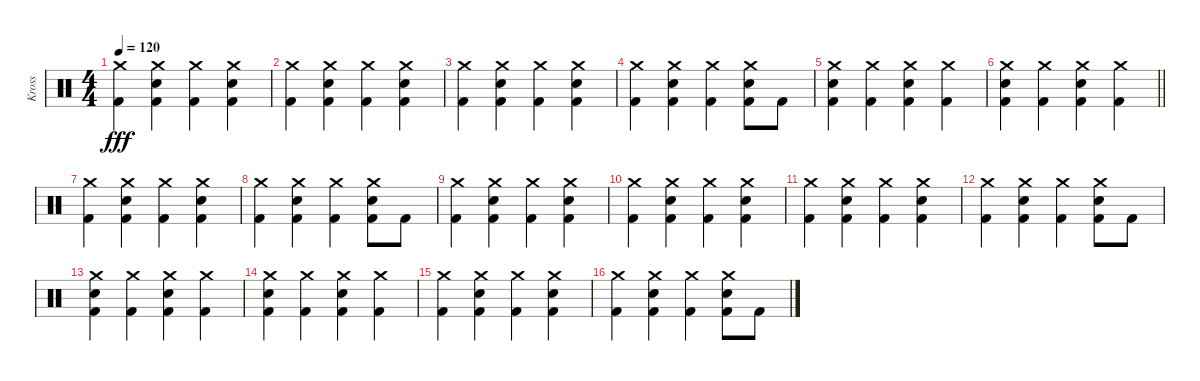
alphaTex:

\track ("Kross" "Kross") {instrument percussion}
\staff {score}
\articulation defaults
\ts (4 4)
\tempo 120
\clef neutral
\ks c
("Crash medium (hit)" "Kick (hit) 2").4{dy fff} ("Snare (hit) 2" "Crash medium (hit)" "Kick (hit) 2").4 ("Crash medium (hit)" "Kick (hit) 2").4 ("Snare (hit) 2" "Crash medium (hit)" "Kick (hit) 2").4 |
("Crash medium (hit)" "Kick (hit) 2").4 ("Snare (hit) 2" "Crash medium (hit)" "Kick (hit) 2").4 ("Crash medium (hit)" "Kick (hit) 2").4 ("Snare (hit) 2" "Crash medium (hit)" "Kick (hit) 2").4 |
("Crash medium (hit)" "Kick (hit) 2").4 ("Snare (hit) 2" "Crash medium (hit)" "Kick (hit) 2").4 ("Crash medium (hit)" "Kick (hit) 2").4 ("Snare (hit) 2" "Crash medium (hit)" "Kick (hit) 2").4 |
("Crash medium (hit)" "Kick (hit) 2").4 ("Snare (hit) 2" "Crash medium (hit)" "Kick (hit) 2").4 ("Crash medium (hit)" "Kick (hit) 2").4 ("Snare (hit) 2" "Crash medium (hit)" "Kick (hit) 2").8 "Kick (hit) 2".8 |
("Snare (hit) 2" "Crash medium (hit)" "Kick (hit) 2").4 ("Crash medium (hit)" "Kick (hit) 2").4 ("Snare (hit) 2" "Crash medium (hit)" "Kick (hit) 2").4 ("Crash medium (hit)" "Kick (hit) 2").4 |
\barLineRight lightlight
("Snare (hit) 2" "Crash medium (hit)" "Kick (hit) 2").4 ("Crash medium (hit)" "Kick (hit) 2").4 ("Snare (hit) 2" "Crash medium (hit)" "Kick (hit) 2").4 ("Crash medium (hit)" "Kick (hit) 2").4 |
("Crash medium (hit)" "Kick (hit) 2").4 ("Snare (hit) 2" "Crash medium (hit)" "Kick (hit) 2").4 ("Crash medium (hit)" "Kick (hit) 2").4 ("Snare (hit) 2" "Crash medium (hit)" "Kick (hit) 2").4 |
("Crash medium (hit)" "Kick (hit) 2").4 ("Snare (hit) 2" "Crash medium (hit)" "Kick (hit) 2").4 ("Crash medium (hit)" "Kick (hit) 2").4 ("Snare (hit) 2" "Crash medium (hit)" "Kick (hit) 2").8 "Kick (hit) 2".8 |
("Crash medium (hit)" "Kick (hit) 2").4 ("Snare (hit) 2" "Crash medium (hit)" "Kick (hit) 2").4 ("Crash medium (hit)" "Kick (hit) 2").4 ("Snare (hit) 2" "Crash medium (hit)" "Kick (hit) 2").4 |
("Crash medium (hit)" "Kick (hit) 2").4 ("Snare (hit) 2" "Crash medium (hit)" "Kick (hit) 2").4 ("Crash medium (hit)" "Kick (hit) 2").4 ("Snare (hit) 2" "Crash medium (hit)" "Kick (hit) 2").4 |
("Crash medium (hit)" "Kick (hit) 2").4 ("Snare (hit) 2" "Crash medium (hit)" "Kick (hit) 2").4 ("Crash medium (hit)" "Kick (hit) 2").4 ("Snare (hit) 2" "Crash medium (hit)" "Kick (hit) 2").4 |
("Crash medium (hit)" "Kick (hit) 2").4 ("Snare (hit) 2" "Crash medium (hit)" "Kick (hit) 2").4 ("Crash medium (hit)" "Kick (hit) 2").4 ("Snare (hit) 2" "Crash medium (hit)" "Kick (hit) 2").8 "Kick (hit) 2".8 |
("Snare (hit) 2" "Crash medium (hit)" "Kick (hit) 2").4 ("Crash medium (hit)" "Kick (hit) 2").4 ("Snare (hit) 2" "Crash medium (hit)" "Kick (hit) 2").4 ("Crash medium (hit)" "Kick (hit) 2").4 |
("Snare (hit) 2" "Crash medium (hit)" "Kick (hit) 2").4 ("Crash medium (hit)" "Kick (hit) 2").4 ("Snare (hit) 2" "Crash medium (hit)" "Kick (hit) 2").4 ("Crash medium (hit)" "Kick (hit) 2").4 |
("Crash medium (hit)" "Kick (hit) 2").4 ("Snare (hit) 2" "Crash medium (hit)" "Kick (hit) 2").4 ("Crash medium (hit)" "Kick (hit) 2").4 ("Snare (hit) 2" "Crash medium (hit)" "Kick (hit) 2").4 |
("Crash medium (hit)" "Kick (hit) 2").4 ("Snare (hit) 2" "Crash medium (hit)" "Kick (hit) 2").4 ("Crash medium (hit)" "Kick (hit) 2").4 ("Snare (hit) 2" "Crash medium (hit)" "Kick (hit) 2").8 "Kick (hit) 2".8
